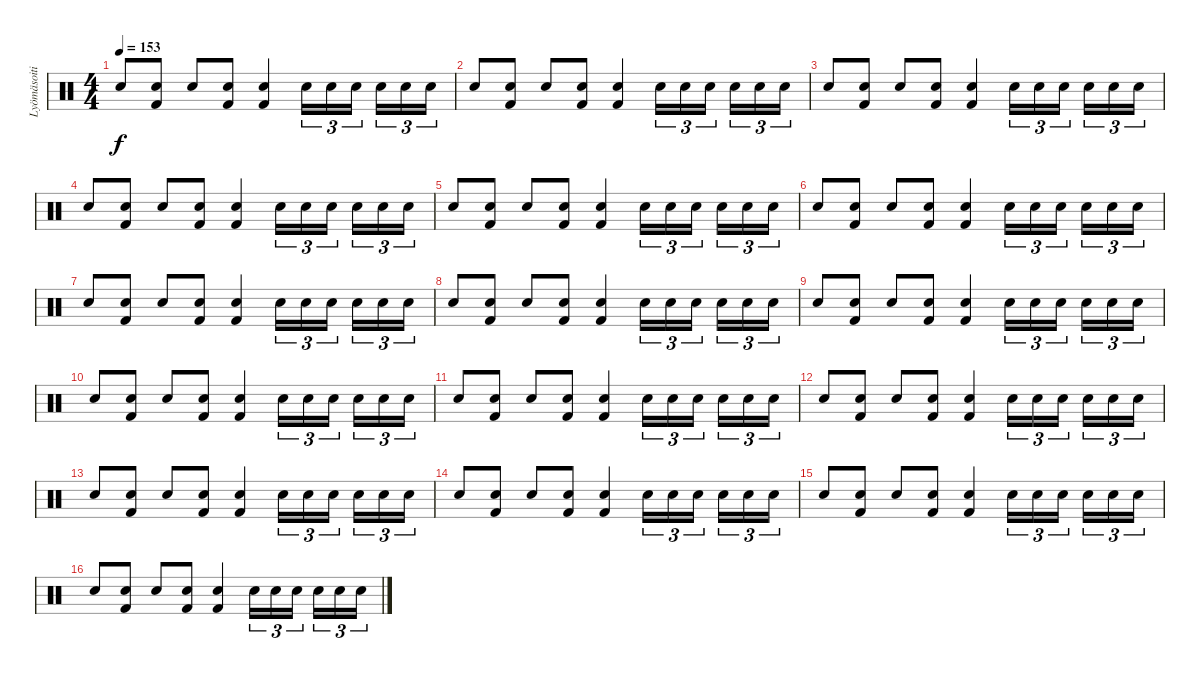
\track ("Lyömäsoitin" "Lyömäsoiti") {instrument percussion}
\staff {score}
\articulation defaults
\ts (4 4)
\tempo 153
\clef neutral
\ks c "Electric Snare (hit)".8{dy f}
("Electric Snare (hit)" "Kick (hit) 2").8 "Electric Snare (hit)".8 ("Electric Snare (hit)" "Kick (hit) 2").8 ("Electric Snare (hit)" "Kick (hit) 2").4 "Electric Snare (hit)".16{tu (3 2)} "Electric Snare (hit)".16{tu (3 2)} "Electric Snare (hit)".16{tu (3 2)} "Electric Snare (hit)".16{tu (3 2)} "Electric Snare (hit)".16{tu (3 2)} "Electric Snare (hit)".16{tu (3 2)} |
"Electric Snare (hit)".8 ("Electric Snare (hit)" "Kick (hit) 2").8 "Electric Snare (hit)".8 ("Electric Snare (hit)" "Kick (hit) 2").8 ("Electric Snare (hit)" "Kick (hit) 2").4 "Electric Snare (hit)".16{tu (3 2)} "Electric Snare (hit)".16{tu (3 2)} "Electric Snare (hit)".16{tu (3 2)} "Electric Snare (hit)".16{tu (3 2)} "Electric Snare (hit)".16{tu (3 2)} "Electric Snare (hit)".16{tu (3 2)} |
"Electric Snare (hit)".8 ("Electric Snare (hit)" "Kick (hit) 2").8 "Electric Snare (hit)".8 ("Electric Snare (hit)" "Kick (hit) 2").8 ("Electric Snare (hit)" "Kick (hit) 2").4 "Electric Snare (hit)".16{tu (3 2)} "Electric Snare (hit)".16{tu (3 2)} "Electric Snare (hit)".16{tu (3 2)} "Electric Snare (hit)".16{tu (3 2)} "Electric Snare (hit)".16{tu (3 2)} "Electric Snare (hit)".16{tu (3 2)} |
"Electric Snare (hit)".8 ("Electric Snare (hit)" "Kick (hit) 2").8 "Electric Snare (hit)".8 ("Electric Snare (hit)" "Kick (hit) 2").8 ("Electric Snare (hit)" "Kick (hit) 2").4 "Electric Snare (hit)".16{tu (3 2)} "Electric Snare (hit)".16{tu (3 2)} "Electric Snare (hit)".16{tu (3 2)} "Electric Snare (hit)".16{tu (3 2)} "Electric Snare (hit)".16{tu (3 2)} "Electric Snare (hit)".16{tu (3 2)} |
"Electric Snare (hit)".8 ("Electric Snare (hit)" "Kick (hit) 2").8 "Electric Snare (hit)".8 ("Electric Snare (hit)" "Kick (hit) 2").8 ("Electric Snare (hit)" "Kick (hit) 2").4 "Electric Snare (hit)".16{tu (3 2)} "Electric Snare (hit)".16{tu (3 2)} "Electric Snare (hit)".16{tu (3 2)} "Electric Snare (hit)".16{tu (3 2)} "Electric Snare (hit)".16{tu (3 2)} "Electric Snare (hit)".16{tu (3 2)} |
"Electric Snare (hit)".8 ("Electric Snare (hit)" "Kick (hit) 2").8 "Electric Snare (hit)".8 ("Electric Snare (hit)" "Kick (hit) 2").8 ("Electric Snare (hit)" "Kick (hit) 2").4 "Electric Snare (hit)".16{tu (3 2)} "Electric Snare (hit)".16{tu (3 2)} "Electric Snare (hit)".16{tu (3 2)} "Electric Snare (hit)".16{tu (3 2)} "Electric Snare (hit)".16{tu (3 2)} "Electric Snare (hit)".16{tu (3 2)} |
"Electric Snare (hit)".8 ("Electric Snare (hit)" "Kick (hit) 2").8 "Electric Snare (hit)".8 ("Electric Snare (hit)" "Kick (hit) 2").8 ("Electric Snare (hit)" "Kick (hit) 2").4 "Electric Snare (hit)".16{tu (3 2)} "Electric Snare (hit)".16{tu (3 2)} "Electric Snare (hit)".16{tu (3 2)} "Electric Snare (hit)".16{tu (3 2)} "Electric Snare (hit)".16{tu (3 2)} "Electric Snare (hit)".16{tu (3 2)} |
"Electric Snare (hit)".8 ("Electric Snare (hit)" "Kick (hit) 2").8 "Electric Snare (hit)".8 ("Electric Snare (hit)" "Kick (hit) 2").8 ("Electric Snare (hit)" "Kick (hit) 2").4 "Electric Snare (hit)".16{tu (3 2)} "Electric Snare (hit)".16{tu (3 2)} "Electric Snare (hit)".16{tu (3 2)} "Electric Snare (hit)".16{tu (3 2)} "Electric Snare (hit)".16{tu (3 2)} "Electric Snare (hit)".16{tu (3 2)} |
"Electric Snare (hit)".8 ("Electric Snare (hit)" "Kick (hit) 2").8 "Electric Snare (hit)".8 ("Electric Snare (hit)" "Kick (hit) 2").8 ("Electric Snare (hit)" "Kick (hit) 2").4 "Electric Snare (hit)".16{tu (3 2)} "Electric Snare (hit)".16{tu (3 2)} "Electric Snare (hit)".16{tu (3 2)} "Electric Snare (hit)".16{tu (3 2)} "Electric Snare (hit)".16{tu (3 2)} "Electric Snare (hit)".16{tu (3 2)} |
"Electric Snare (hit)".8 ("Electric Snare (hit)" "Kick (hit) 2").8 "Electric Snare (hit)".8 ("Electric Snare (hit)" "Kick (hit) 2").8 ("Electric Snare (hit)" "Kick (hit) 2").4 "Electric Snare (hit)".16{tu (3 2)} "Electric Snare (hit)".16{tu (3 2)} "Electric Snare (hit)".16{tu (3 2)} "Electric Snare (hit)".16{tu (3 2)} "Electric Snare (hit)".16{tu (3 2)} "Electric Snare (hit)".16{tu (3 2)} |
"Electric Snare (hit)".8 ("Electric Snare (hit)" "Kick (hit) 2").8 "Electric Snare (hit)".8 ("Electric Snare (hit)" "Kick (hit) 2").8 ("Electric Snare (hit)" "Kick (hit) 2").4 "Electric Snare (hit)".16{tu (3 2)} "Electric Snare (hit)".16{tu (3 2)} "Electric Snare (hit)".16{tu (3 2)} "Electric Snare (hit)".16{tu (3 2)} "Electric Snare (hit)".16{tu (3 2)} "Electric Snare (hit)".16{tu (3 2)} |
"Electric Snare (hit)".8 ("Electric Snare (hit)" "Kick (hit) 2").8 "Electric Snare (hit)".8 ("Electric Snare (hit)" "Kick (hit) 2").8 ("Electric Snare (hit)" "Kick (hit) 2").4 "Electric Snare (hit)".16{tu (3 2)} "Electric Snare (hit)".16{tu (3 2)} "Electric Snare (hit)".16{tu (3 2)} "Electric Snare (hit)".16{tu (3 2)} "Electric Snare (hit)".16{tu (3 2)} "Electric Snare (hit)".16{tu (3 2)} |
"Electric Snare (hit)".8 ("Electric Snare (hit)" "Kick (hit) 2").8 "Electric Snare (hit)".8 ("Electric Snare (hit)" "Kick (hit) 2").8 ("Electric Snare (hit)" "Kick (hit) 2").4 "Electric Snare (hit)".16{tu (3 2)} "Electric Snare (hit)".16{tu (3 2)} "Electric Snare (hit)".16{tu (3 2)} "Electric Snare (hit)".16{tu (3 2)} "Electric Snare (hit)".16{tu (3 2)} "Electric Snare (hit)".16{tu (3 2)} |
"Electric Snare (hit)".8 ("Electric Snare (hit)" "Kick (hit) 2").8 "Electric Snare (hit)".8 ("Electric Snare (hit)" "Kick (hit) 2").8 ("Electric Snare (hit)" "Kick (hit) 2").4 "Electric Snare (hit)".16{tu (3 2)} "Electric Snare (hit)".16{tu (3 2)} "Electric Snare (hit)".16{tu (3 2)} "Electric Snare (hit)".16{tu (3 2)} "Electric Snare (hit)".16{tu (3 2)} "Electric Snare (hit)".16{tu (3 2)} |
"Electric Snare (hit)".8 ("Electric Snare (hit)" "Kick (hit) 2").8 "Electric Snare (hit)".8 ("Electric Snare (hit)" "Kick (hit) 2").8 ("Electric Snare (hit)" "Kick (hit) 2").4 "Electric Snare (hit)".16{tu (3 2)} "Electric Snare (hit)".16{tu (3 2)} "Electric Snare (hit)".16{tu (3 2)} "Electric Snare (hit)".16{tu (3 2)} "Electric Snare (hit)".16{tu (3 2)} "Electric Snare (hit)".16{tu (3 2)} |
"Electric Snare (hit)".8 ("Electric Snare (hit)" "Kick (hit) 2").8 "Electric Snare (hit)".8 ("Electric Snare (hit)" "Kick (hit) 2").8 ("Electric Snare (hit)" "Kick (hit) 2").4 "Electric Snare (hit)".16{tu (3 2)} "Electric Snare (hit)".16{tu (3 2)} "Electric Snare (hit)".16{tu (3 2)} "Electric Snare (hit)".16{tu (3 2)} "Electric Snare (hit)".16{tu (3 2)} "Electric Snare (hit)".16{tu (3 2)}
